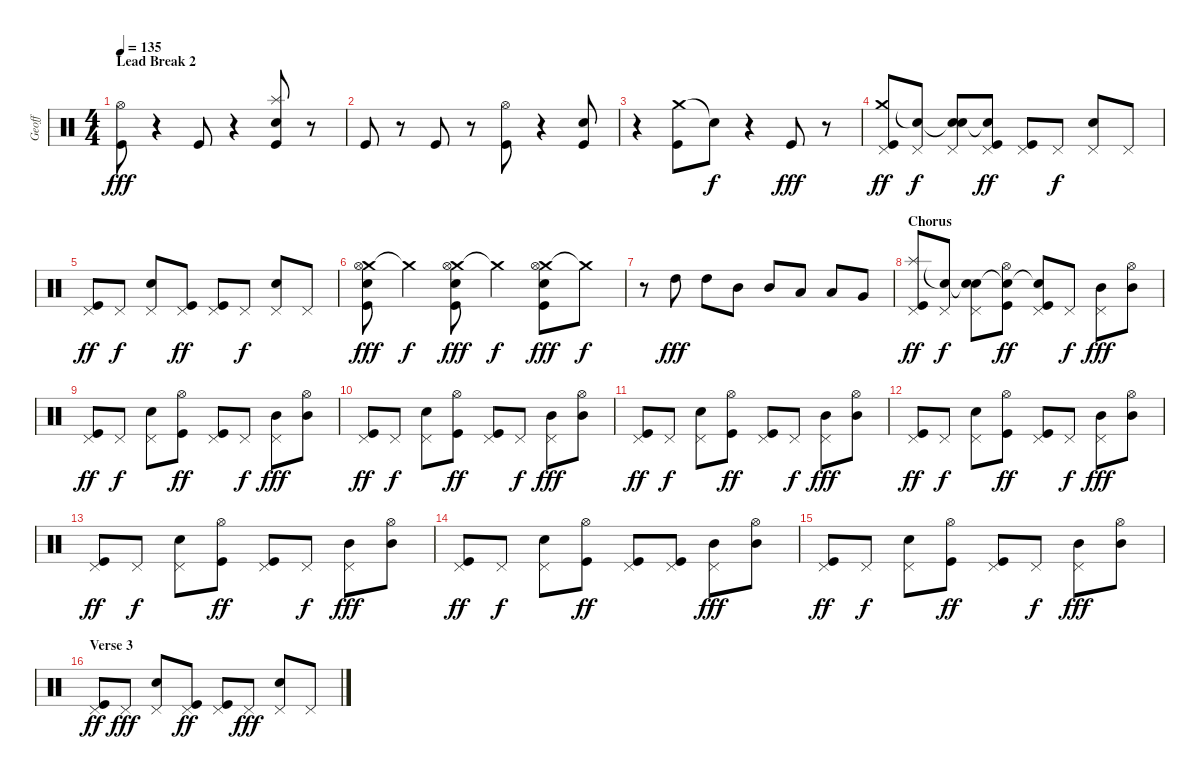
\track ("Geoff" "Geoff") {instrument percussion}
\staff {score}
\articulation defaults
\ts (4 4)
\section ("" "Lead Break 2")
\tempo 135
\clef neutral
\ks c
("Hi-Hat (open)" "Kick (hit)").8{dy fff} r.4 "Kick (hit)".8 r.4 ("Splash (hit)" "Electric Snare (hit)" "Kick (hit)").8 r.8 |
"Kick (hit)".8 r.8 "Kick (hit)".8 r.8 ("Hi-Hat (open)" "Kick (hit)").8 r.4 ("Electric Snare (hit)" "Kick (hit)").8 |
r.4 ("Crash medium (hit)" "Kick (hit)").8 "Snare (hit)"{t}.8{dy f} r.4 "Kick (hit)".8{dy fff} r.8 |
("Crash medium (hit)" "Pedal Hi-Hat (hit)" "Kick (hit)").8{dy ff} ("Snare (hit)"{t} "Pedal Hi-Hat (hit)").8{dy f} ("Snare (hit)"{t} "Pedal Hi-Hat (hit)" "Electric Snare (hit)").8 ("Snare (hit)"{t} "Pedal Hi-Hat (hit)" "Kick (hit)").8{dy ff} ("Pedal Hi-Hat (hit)" "Kick (hit)").8 "Pedal Hi-Hat (hit)".8{dy f} ("Pedal Hi-Hat (hit)" "Electric Snare (hit)").8 "Pedal Hi-Hat (hit)".8 |
("Pedal Hi-Hat (hit)" "Kick (hit)").8{dy ff} "Pedal Hi-Hat (hit)".8{dy f} ("Pedal Hi-Hat (hit)" "Electric Snare (hit)").8 ("Pedal Hi-Hat (hit)" "Kick (hit)").8{dy ff} ("Pedal Hi-Hat (hit)" "Kick (hit)").8 "Pedal Hi-Hat (hit)".8{dy f} ("Pedal Hi-Hat (hit)" "Electric Snare (hit)").8 "Pedal Hi-Hat (hit)".8 |
("Crash medium (hit)" "Hi-Hat (open)" "Electric Snare (hit)" "Kick (hit)").8{dy fff} "Crash medium (hit)"{t}.4{dy f} ("Crash medium (hit)" "Hi-Hat (open)" "Electric Snare (hit)" "Kick (hit)").8{dy fff} "Crash medium (hit)"{t}.4{dy f} ("Crash medium (hit)" "Hi-Hat (open)" "Electric Snare (hit)" "Kick (hit)").8{dy fff} "Crash medium (hit)"{t}.8{dy f} |
r.8 "High Tom (hit)".8{dy fff} "High Tom (hit)".8 "Mid Tom (hit)".8 "Mid Tom (hit)".8 "Low Tom (hit)".8 "Low Tom (hit)".8 "Very Low Tom (hit)".8 |
\section ("" "Chorus")
("Splash (hit)" "Pedal Hi-Hat (hit)" "Kick (hit)").8{dy ff} ("Snare (hit)"{t} "Pedal Hi-Hat (hit)").8{dy f} ("Snare (hit)"{t} "Pedal Hi-Hat (hit)" "Electric Snare (hit)").8 ("Snare (hit)"{t} "Hi-Hat (open)" "Kick (hit)").8{dy ff} ("Snare (hit)"{t} "Pedal Hi-Hat (hit)" "Kick (hit)").8 "Pedal Hi-Hat (hit)".8{dy f} ("Pedal Hi-Hat (hit)" "Mid Tom (hit)").8{dy fff} ("Hi-Hat (open)" "Mid Tom (hit)").8 |
("Pedal Hi-Hat (hit)" "Kick (hit)").8{dy ff} "Pedal Hi-Hat (hit)".8{dy f} ("Pedal Hi-Hat (hit)" "Electric Snare (hit)").8 ("Hi-Hat (open)" "Kick (hit)").8{dy ff} ("Pedal Hi-Hat (hit)" "Kick (hit)").8 "Pedal Hi-Hat (hit)".8{dy f} ("Pedal Hi-Hat (hit)" "Mid Tom (hit)").8{dy fff} ("Hi-Hat (open)" "Mid Tom (hit)").8 |
("Pedal Hi-Hat (hit)" "Kick (hit)").8{dy ff} "Pedal Hi-Hat (hit)".8{dy f} ("Pedal Hi-Hat (hit)" "Electric Snare (hit)").8 ("Hi-Hat (open)" "Kick (hit)").8{dy ff} ("Pedal Hi-Hat (hit)" "Kick (hit)").8 "Pedal Hi-Hat (hit)".8{dy f} ("Pedal Hi-Hat (hit)" "Mid Tom (hit)").8{dy fff} ("Hi-Hat (open)" "Mid Tom (hit)").8 |
("Pedal Hi-Hat (hit)" "Kick (hit)").8{dy ff} "Pedal Hi-Hat (hit)".8{dy f} ("Pedal Hi-Hat (hit)" "Electric Snare (hit)").8 ("Hi-Hat (open)" "Kick (hit)").8{dy ff} ("Pedal Hi-Hat (hit)" "Kick (hit)").8 "Pedal Hi-Hat (hit)".8{dy f} ("Pedal Hi-Hat (hit)" "Mid Tom (hit)").8{dy fff} ("Hi-Hat (open)" "Mid Tom (hit)").8 |
("Pedal Hi-Hat (hit)" "Kick (hit)").8{dy ff} "Pedal Hi-Hat (hit)".8{dy f} ("Pedal Hi-Hat (hit)" "Electric Snare (hit)").8 ("Hi-Hat (open)" "Kick (hit)").8{dy ff} ("Pedal Hi-Hat (hit)" "Kick (hit)").8 "Pedal Hi-Hat (hit)".8{dy f} ("Pedal Hi-Hat (hit)" "Mid Tom (hit)").8{dy fff} ("Hi-Hat (open)" "Mid Tom (hit)").8 |
("Pedal Hi-Hat (hit)" "Kick (hit)").8{dy ff} "Pedal Hi-Hat (hit)".8{dy f} ("Pedal Hi-Hat (hit)" "Electric Snare (hit)").8 ("Hi-Hat (open)" "Kick (hit)").8{dy ff} ("Pedal Hi-Hat (hit)" "Kick (hit)").8 "Pedal Hi-Hat (hit)".8{dy f} ("Pedal Hi-Hat (hit)" "Mid Tom (hit)").8{dy fff} ("Hi-Hat (open)" "Mid Tom (hit)").8 |
("Pedal Hi-Hat (hit)" "Kick (hit)").8{dy ff} "Pedal Hi-Hat (hit)".8{dy f} ("Pedal Hi-Hat (hit)" "Electric Snare (hit)").8 ("Hi-Hat (open)" "Kick (hit)").8{dy ff} ("Pedal Hi-Hat (hit)" "Kick (hit)").8 ("Pedal Hi-Hat (hit)" "Kick (hit)").8 ("Pedal Hi-Hat (hit)" "Mid Tom (hit)").8{dy fff} ("Hi-Hat (open)" "Mid Tom (hit)").8 |
("Pedal Hi-Hat (hit)" "Kick (hit)").8{dy ff} "Pedal Hi-Hat (hit)".8{dy f} ("Pedal Hi-Hat (hit)" "Electric Snare (hit)").8 ("Hi-Hat (open)" "Kick (hit)").8{dy ff} ("Pedal Hi-Hat (hit)" "Kick (hit)").8 "Pedal Hi-Hat (hit)".8{dy f} ("Pedal Hi-Hat (hit)" "Mid Tom (hit)").8{dy fff} ("Hi-Hat (open)" "Mid Tom (hit)").8 |
\section ("" "Verse 3")
("Pedal Hi-Hat (hit)" "Kick (hit)").8{dy ff} "Pedal Hi-Hat (hit)".8{dy fff} ("Pedal Hi-Hat (hit)" "Electric Snare (hit)").8 ("Pedal Hi-Hat (hit)" "Kick (hit)").8{dy ff} ("Pedal Hi-Hat (hit)" "Kick (hit)").8 "Pedal Hi-Hat (hit)".8{dy fff} ("Pedal Hi-Hat (hit)" "Electric Snare (hit)").8 "Pedal Hi-Hat (hit)".8
